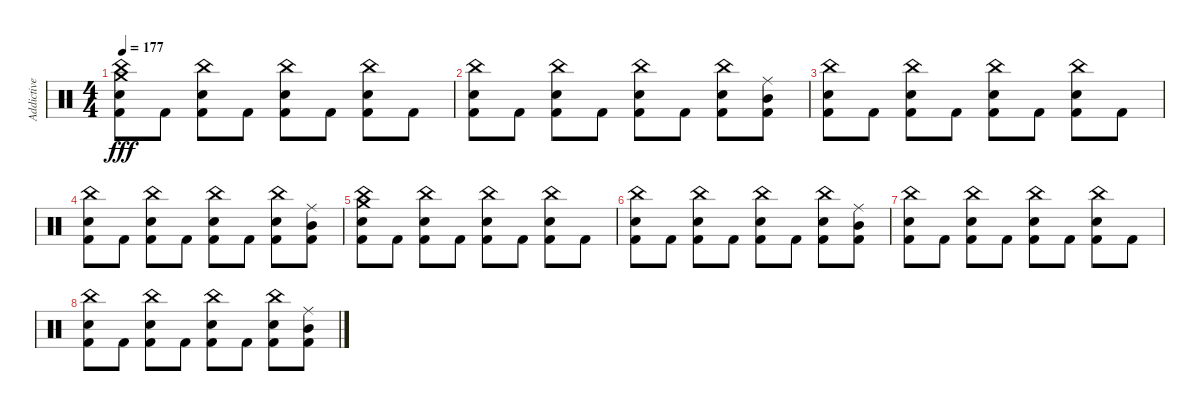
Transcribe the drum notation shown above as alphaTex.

\track ("Addictive" "Addictive") {instrument percussion}
\staff {score}
\articulation defaults
\ts (4 4)
\tempo 177
\clef neutral
\ks c
("Kick (hit) 2" "Snare (hit) 2" "Crash medium (hit)" "China (hit)").8{dy fff} "Kick (hit) 2".8 ("Kick (hit) 2" "Snare (hit) 2" "China (hit)").8 "Kick (hit) 2".8 ("Kick (hit) 2" "Snare (hit) 2" "China (hit)").8 "Kick (hit) 2".8 ("Kick (hit) 2" "Snare (hit) 2" "China (hit)").8 "Kick (hit) 2".8 |
("Kick (hit) 2" "Snare (hit) 2" "China (hit)").8 "Kick (hit) 2".8 ("Kick (hit) 2" "Snare (hit) 2" "China (hit)").8 "Kick (hit) 2".8 ("Kick (hit) 2" "Snare (hit) 2" "China (hit)").8 "Kick (hit) 2".8 ("Kick (hit) 2" "Snare (hit) 2" "China (hit)").8 ("Kick (hit) 2" "Ride (middle)" "Mid Tom (hit)").8 |
("Kick (hit) 2" "Snare (hit) 2" "China (hit)").8 "Kick (hit) 2".8 ("Kick (hit) 2" "Snare (hit) 2" "China (hit)").8 "Kick (hit) 2".8 ("Kick (hit) 2" "Snare (hit) 2" "China (hit)").8 "Kick (hit) 2".8 ("Kick (hit) 2" "Snare (hit) 2" "China (hit)").8 "Kick (hit) 2".8 |
("Kick (hit) 2" "Snare (hit) 2" "China (hit)").8 "Kick (hit) 2".8 ("Kick (hit) 2" "Snare (hit) 2" "China (hit)").8 "Kick (hit) 2".8 ("Kick (hit) 2" "Snare (hit) 2" "China (hit)").8 "Kick (hit) 2".8 ("Kick (hit) 2" "Snare (hit) 2" "China (hit)").8 ("Kick (hit) 2" "Ride (middle)" "Mid Tom (hit)").8 |
("Kick (hit) 2" "Snare (hit) 2" "Crash medium (hit)" "China (hit)").8 "Kick (hit) 2".8 ("Kick (hit) 2" "Snare (hit) 2" "China (hit)").8 "Kick (hit) 2".8 ("Kick (hit) 2" "Snare (hit) 2" "China (hit)").8 "Kick (hit) 2".8 ("Kick (hit) 2" "Snare (hit) 2" "China (hit)").8 "Kick (hit) 2".8 |
("Kick (hit) 2" "Snare (hit) 2" "China (hit)").8 "Kick (hit) 2".8 ("Kick (hit) 2" "Snare (hit) 2" "China (hit)").8 "Kick (hit) 2".8 ("Kick (hit) 2" "Snare (hit) 2" "China (hit)").8 "Kick (hit) 2".8 ("Kick (hit) 2" "Snare (hit) 2" "China (hit)").8 ("Kick (hit) 2" "Ride (middle)" "Mid Tom (hit)").8 |
("Kick (hit) 2" "Snare (hit) 2" "China (hit)").8 "Kick (hit) 2".8 ("Kick (hit) 2" "Snare (hit) 2" "China (hit)").8 "Kick (hit) 2".8 ("Kick (hit) 2" "Snare (hit) 2" "China (hit)").8 "Kick (hit) 2".8 ("Kick (hit) 2" "Snare (hit) 2" "China (hit)").8 "Kick (hit) 2".8 |
("Kick (hit) 2" "Snare (hit) 2" "China (hit)").8 "Kick (hit) 2".8 ("Kick (hit) 2" "Snare (hit) 2" "China (hit)").8 "Kick (hit) 2".8 ("Kick (hit) 2" "Snare (hit) 2" "China (hit)").8 "Kick (hit) 2".8 ("Kick (hit) 2" "Snare (hit) 2" "China (hit)").8 ("Kick (hit) 2" "Ride (middle)" "Mid Tom (hit)").8
